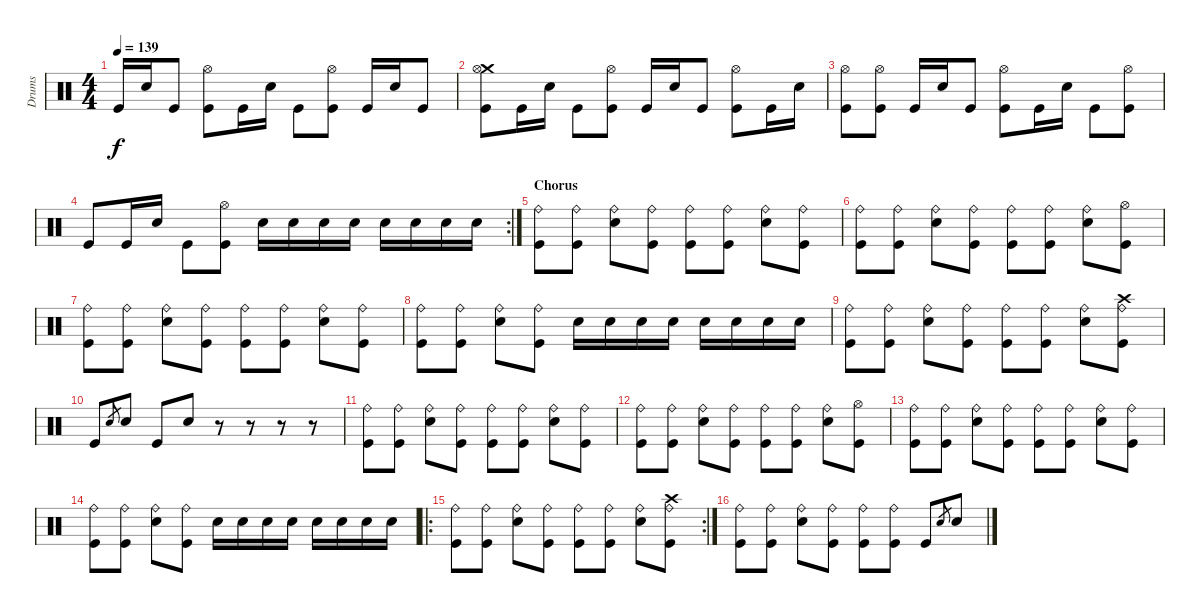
\track ("Drums" "Drums") {instrument percussion}
\staff {score}
\articulation defaults
\ts (4 4)
\tempo 139
\clef neutral
\ks c "Kick (hit)".16{dy f} "Electric Snare (hit)".16 "Kick (hit)".8
("Hi-Hat (open)" "Kick (hit)").8 "Kick (hit)".16 "Electric Snare (hit)".16 "Kick (hit)".8 ("Hi-Hat (open)" "Kick (hit)").8 "Kick (hit)".16 "Electric Snare (hit)".16 "Kick (hit)".8 |
("Crash medium (hit)" "Hi-Hat (open)" "Kick (hit)").8 "Kick (hit)".16 "Electric Snare (hit)".16 "Kick (hit)".8 ("Hi-Hat (open)" "Kick (hit)").8 "Kick (hit)".16 "Electric Snare (hit)".16 "Kick (hit)".8 ("Hi-Hat (open)" "Kick (hit)").8 "Kick (hit)".16 "Electric Snare (hit)".16 |
("Hi-Hat (open)" "Kick (hit)").8 ("Hi-Hat (open)" "Kick (hit)").8 "Kick (hit)".16 "Electric Snare (hit)".16 "Kick (hit)".8 ("Hi-Hat (open)" "Kick (hit)").8 "Kick (hit)".16 "Electric Snare (hit)".16 "Kick (hit)".8 ("Hi-Hat (open)" "Kick (hit)").8 |
\rc 2 "Kick (hit)".8 "Kick (hit)".16 "Electric Snare (hit)".16 "Kick (hit)".8
("Hi-Hat (open)" "Kick (hit)").8 "Electric Snare (hit)".16 "Electric Snare (hit)".16 "Electric Snare (hit)".16 "Electric Snare (hit)".16 "Electric Snare (hit)".16 "Electric Snare (hit)".16 "Electric Snare (hit)".16 "Electric Snare (hit)".16 |
\section ("" "Chorus")
("Ride (bell)" "Kick (hit)").8 ("Ride (bell)" "Kick (hit)").8 ("Ride (bell)" "Electric Snare (hit)").8 ("Ride (bell)" "Kick (hit)").8 ("Ride (bell)" "Kick (hit)").8 ("Ride (bell)" "Kick (hit)").8 ("Ride (bell)" "Electric Snare (hit)").8 ("Ride (bell)" "Kick (hit)").8 |
("Ride (bell)" "Kick (hit)").8 ("Ride (bell)" "Kick (hit)").8 ("Ride (bell)" "Electric Snare (hit)").8 ("Ride (bell)" "Kick (hit)").8 ("Ride (bell)" "Kick (hit)").8 ("Ride (bell)" "Kick (hit)").8 ("Ride (bell)" "Electric Snare (hit)").8 ("Hi-Hat (open)" "Kick (hit)").8 |
("Ride (bell)" "Kick (hit)").8 ("Ride (bell)" "Kick (hit)").8 ("Ride (bell)" "Electric Snare (hit)").8 ("Ride (bell)" "Kick (hit)").8 ("Ride (bell)" "Kick (hit)").8 ("Ride (bell)" "Kick (hit)").8 ("Ride (bell)" "Electric Snare (hit)").8 ("Ride (bell)" "Kick (hit)").8 |
("Ride (bell)" "Kick (hit)").8 ("Ride (bell)" "Kick (hit)").8 ("Ride (bell)" "Electric Snare (hit)").8 ("Ride (bell)" "Kick (hit)").8 "Electric Snare (hit)".16 "Electric Snare (hit)".16 "Electric Snare (hit)".16 "Electric Snare (hit)".16 "Electric Snare (hit)".16 "Electric Snare (hit)".16 "Electric Snare (hit)".16 "Electric Snare (hit)".16 |
("Ride (bell)" "Kick (hit)").8 ("Ride (bell)" "Kick (hit)").8 ("Ride (bell)" "Electric Snare (hit)").8 ("Ride (bell)" "Kick (hit)").8 ("Ride (bell)" "Kick (hit)").8 ("Ride (bell)" "Kick (hit)").8 ("Ride (bell)" "Electric Snare (hit)").8 ("Crash high (hit)" "Ride (bell)" "Kick (hit)").8 |
"Kick (hit)".8 "Electric Snare (hit)".8{gr} "Electric Snare (hit)".8 "Kick (hit)".8 "Electric Snare (hit)".8 r.8 r.8 r.8 r.8 |
("Ride (bell)" "Kick (hit)").8 ("Ride (bell)" "Kick (hit)").8 ("Ride (bell)" "Electric Snare (hit)").8 ("Ride (bell)" "Kick (hit)").8 ("Ride (bell)" "Kick (hit)").8 ("Ride (bell)" "Kick (hit)").8 ("Ride (bell)" "Electric Snare (hit)").8 ("Ride (bell)" "Kick (hit)").8 |
("Ride (bell)" "Kick (hit)").8 ("Ride (bell)" "Kick (hit)").8 ("Ride (bell)" "Electric Snare (hit)").8 ("Ride (bell)" "Kick (hit)").8 ("Ride (bell)" "Kick (hit)").8 ("Ride (bell)" "Kick (hit)").8 ("Ride (bell)" "Electric Snare (hit)").8 ("Hi-Hat (open)" "Kick (hit)").8 |
("Ride (bell)" "Kick (hit)").8 ("Ride (bell)" "Kick (hit)").8 ("Ride (bell)" "Electric Snare (hit)").8 ("Ride (bell)" "Kick (hit)").8 ("Ride (bell)" "Kick (hit)").8 ("Ride (bell)" "Kick (hit)").8 ("Ride (bell)" "Electric Snare (hit)").8 ("Ride (bell)" "Kick (hit)").8 |
("Ride (bell)" "Kick (hit)").8 ("Ride (bell)" "Kick (hit)").8 ("Ride (bell)" "Electric Snare (hit)").8 ("Ride (bell)" "Kick (hit)").8 "Electric Snare (hit)".16 "Electric Snare (hit)".16 "Electric Snare (hit)".16 "Electric Snare (hit)".16 "Electric Snare (hit)".16 "Electric Snare (hit)".16 "Electric Snare (hit)".16 "Electric Snare (hit)".16 |
\ro
\rc 2
("Ride (bell)" "Kick (hit)").8 ("Ride (bell)" "Kick (hit)").8 ("Ride (bell)" "Electric Snare (hit)").8 ("Ride (bell)" "Kick (hit)").8 ("Ride (bell)" "Kick (hit)").8 ("Ride (bell)" "Kick (hit)").8 ("Ride (bell)" "Electric Snare (hit)").8 ("Crash high (hit)" "Ride (bell)" "Kick (hit)").8 |
("Ride (bell)" "Kick (hit)").8 ("Ride (bell)" "Kick (hit)").8 ("Ride (bell)" "Electric Snare (hit)").8 ("Ride (bell)" "Kick (hit)").8 ("Ride (bell)" "Kick (hit)").8 ("Ride (bell)" "Kick (hit)").8 "Kick (hit)".8 "Electric Snare (hit)".8{gr} "Electric Snare (hit)".8
